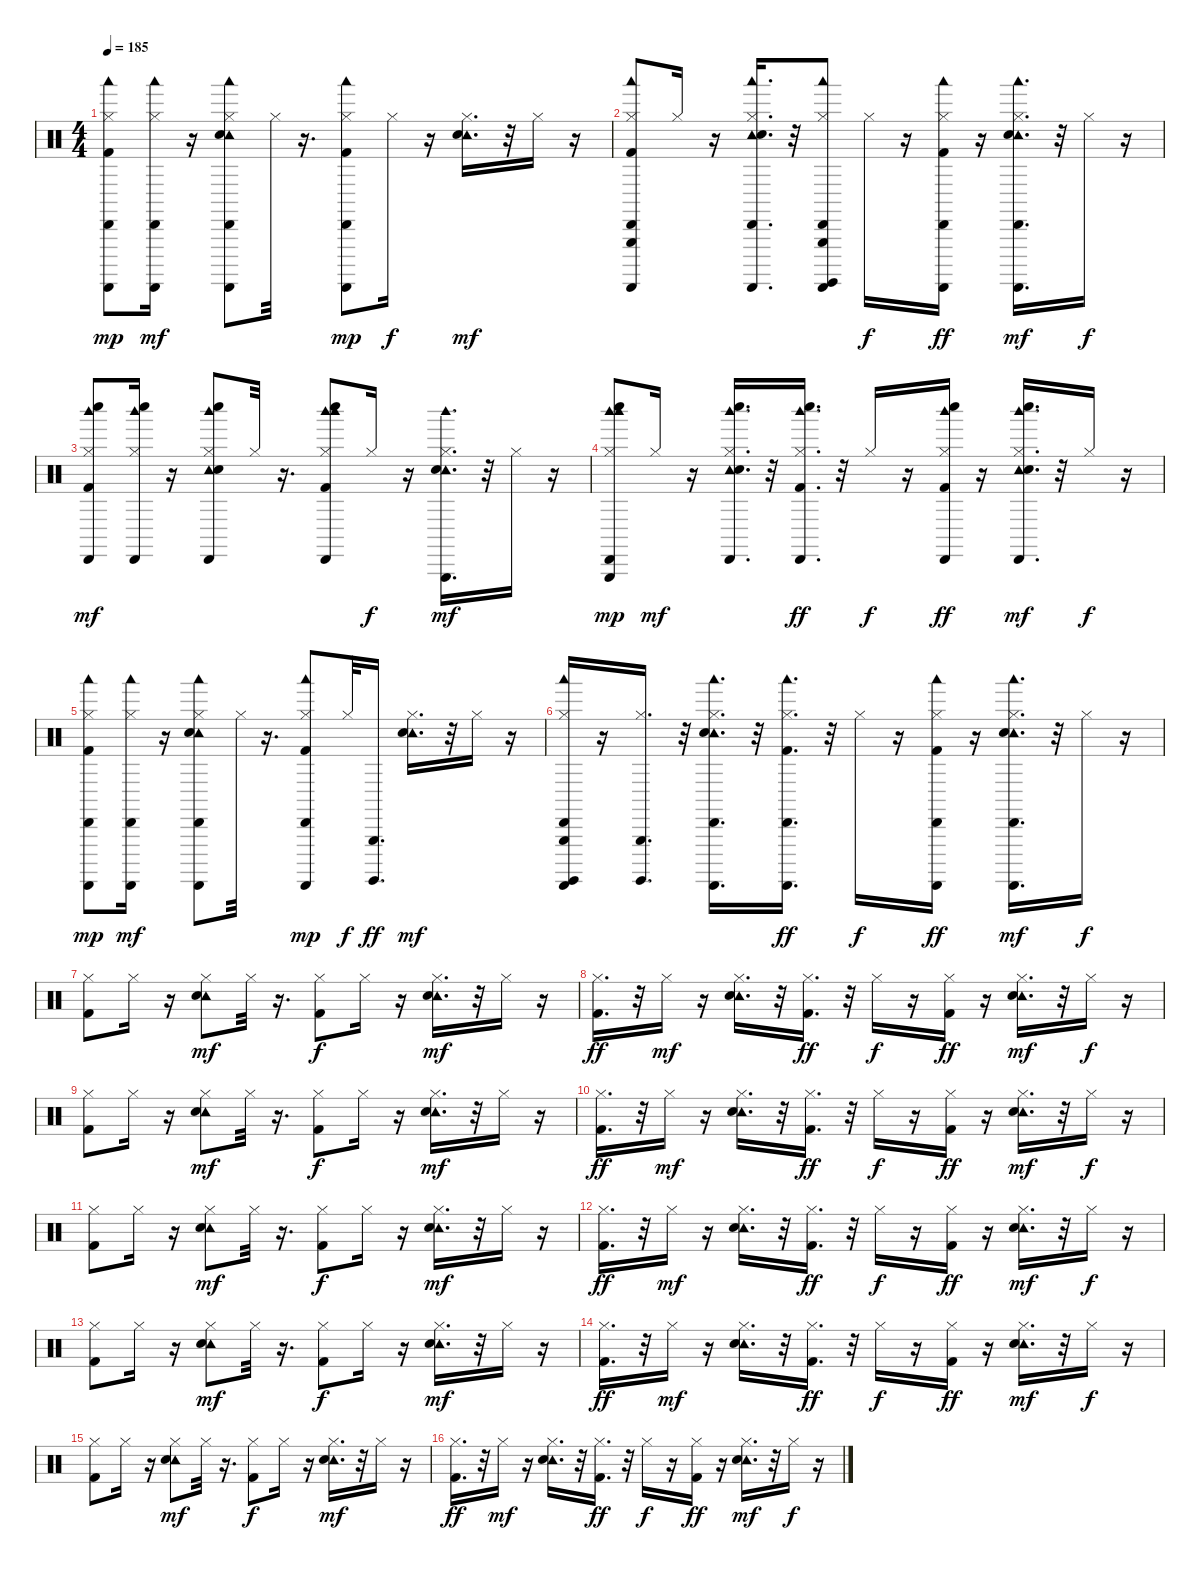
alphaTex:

\track "" {instrument percussion}
\staff {score}
\articulation defaults
\ts (4 4)
\tempo 185
\clef neutral
\ks c
("Woodblock low (hit)" "Cabasa (hit)" "Guiro (scrap-return)" "Hi-Hat (closed)" "Kick (hit) 2").8{dy mp} ("Woodblock low (hit)" "Cabasa (hit)" "Guiro (scrap-return)" "Hi-Hat (closed)").16{dy mf} r.16 ("Guiro (scrap-return)" "Woodblock low (hit)" "Cabasa (hit)" "Tambourine (hit)" "Hi-Hat (closed)" "Snare (hit) 2").8 "Hi-Hat (closed)".32 r.16{d} ("Woodblock low (hit)" "Guiro (scrap-return)" "Cabasa (hit)" "Hi-Hat (closed)" "Kick (hit) 2").8{dy mp} "Hi-Hat (closed)".16{dy f} r.16 ("Tambourine (hit)" "Hi-Hat (closed)" "Snare (hit) 2").16{d dy mf} r.32 "Hi-Hat (closed)".16 r.16 |
("Cabasa (hit)" "Woodblock low (hit)" "Guiro (scrap-return)" "Hi-Hat (closed)" "Kick (hit) 2" "Triangle (hit)").8 "Hi-Hat (closed)".16 r.16 ("Cabasa (hit)" "Woodblock low (hit)" "Guiro (scrap-return)" "Tambourine (hit)" "Hi-Hat (closed)" "Snare (hit) 2").16{d} r.32 ("Woodblock low (hit)" "Cabasa (hit)" "Guiro (scrap-return)" "Surdo (hit)" "Triangle (hit)" "Hi-Hat (closed)").8 "Hi-Hat (closed)".16{dy f} r.16 ("Cabasa (hit)" "Woodblock low (hit)" "Guiro (scrap-return)" "Hi-Hat (closed)" "Kick (hit) 2").16{dy ff} r.16 ("Woodblock low (hit)" "Cabasa (hit)" "Guiro (scrap-return)" "Tambourine (hit)" "Hi-Hat (closed)" "Snare (hit) 2").16{d dy mf} r.32 "Hi-Hat (closed)".16{dy f} r.16 |
("Cabasa (hit)" "Whistle low (hit)" "Woodblock high (hit)" "Hi-Hat (closed)" "Kick (hit) 2").8{dy mf} ("Cabasa (hit)" "Whistle low (hit)" "Woodblock high (hit)" "Hi-Hat (closed)").16 r.16 ("Whistle low (hit)" "Cabasa (hit)" "Woodblock high (hit)" "Tambourine (hit)" "Hi-Hat (closed)" "Snare (hit) 2").8 "Hi-Hat (closed)".32 r.16{d} ("Whistle low (hit)" "Woodblock high (hit)" "Cabasa (hit)" "Hi-Hat (closed)" "Kick (hit) 2" "Woodblock high (hit)").8 "Hi-Hat (closed)".16{dy f} r.16 ("Tambourine (hit)" "Hi-Hat (closed)" "Snare (hit) 2" "Triangle (hit)" "Woodblock high (hit)").16{d dy mf} r.32 "Hi-Hat (closed)".16 r.16 |
("Triangle (hit)" "Woodblock high (hit)" "Cabasa (hit)" "Whistle low (hit)" "Woodblock high (hit)" "Hi-Hat (closed)").8{dy mp} "Hi-Hat (closed)".16{dy mf} r.16 ("Whistle low (hit)" "Cabasa (hit)" "Woodblock high (hit)" "Tambourine (hit)" "Hi-Hat (closed)" "Snare (hit) 2").16{d} r.32 ("Whistle low (hit)" "Cabasa (hit)" "Woodblock high (hit)" "Hi-Hat (closed)" "Kick (hit) 2").16{d dy ff} r.32 "Hi-Hat (closed)".16{dy f} r.16 ("Woodblock high (hit)" "Cabasa (hit)" "Whistle low (hit)" "Hi-Hat (closed)" "Kick (hit) 2").16{dy ff} r.16 ("Whistle low (hit)" "Cabasa (hit)" "Woodblock high (hit)" "Tambourine (hit)" "Hi-Hat (closed)" "Snare (hit) 2").16{d dy mf} r.32 "Hi-Hat (closed)".16{dy f} r.16 |
("Woodblock low (hit)" "Cabasa (hit)" "Guiro (scrap-return)" "Hi-Hat (closed)" "Kick (hit) 2").8{dy mp} ("Cabasa (hit)" "Woodblock low (hit)" "Guiro (scrap-return)" "Hi-Hat (closed)").16{dy mf} r.16 ("Guiro (scrap-return)" "Cabasa (hit)" "Woodblock low (hit)" "Tambourine (hit)" "Hi-Hat (closed)" "Snare (hit) 2").8 "Hi-Hat (closed)".32 r.16{d} ("Woodblock low (hit)" "Guiro (scrap-return)" "Cabasa (hit)" "Hi-Hat (closed)" "Kick (hit) 2").8{dy mp} "Hi-Hat (closed)".32{dy f} ("Triangle (hit)" "Surdo (hit)").16{d dy ff} ("Tambourine (hit)" "Hi-Hat (closed)" "Snare (hit) 2").16{d dy mf} r.32 "Hi-Hat (closed)".16 r.16 |
("Cabasa (hit)" "Woodblock low (hit)" "Guiro (scrap-return)" "Surdo (hit)" "Triangle (hit)" "Hi-Hat (closed)").16 r.16 ("Hi-Hat (closed)" "Surdo (hit)" "Triangle (hit)").16{d} r.32 ("Cabasa (hit)" "Woodblock low (hit)" "Guiro (scrap-return)" "Tambourine (hit)" "Hi-Hat (closed)" "Snare (hit) 2").16{d} r.32 ("Cabasa (hit)" "Woodblock low (hit)" "Guiro (scrap-return)" "Hi-Hat (closed)" "Kick (hit) 2").16{d dy ff} r.32 "Hi-Hat (closed)".16{dy f} r.16 ("Woodblock low (hit)" "Cabasa (hit)" "Guiro (scrap-return)" "Hi-Hat (closed)" "Kick (hit) 2").16{dy ff} r.16 ("Woodblock low (hit)" "Guiro (scrap-return)" "Cabasa (hit)" "Tambourine (hit)" "Hi-Hat (closed)" "Snare (hit) 2").16{d dy mf} r.32 "Hi-Hat (closed)".16{dy f} r.16 |
("Hi-Hat (closed)" "Kick (hit) 2").8 "Hi-Hat (closed)".16 r.16 ("Tambourine (hit)" "Hi-Hat (closed)" "Snare (hit) 2").8{dy mf} "Hi-Hat (closed)".32 r.16{d} ("Hi-Hat (closed)" "Kick (hit) 2").8{dy f} "Hi-Hat (closed)".16 r.16 ("Tambourine (hit)" "Hi-Hat (closed)" "Snare (hit) 2").16{d dy mf} r.32 "Hi-Hat (closed)".16 r.16 |
("Hi-Hat (closed)" "Kick (hit) 2").16{d dy ff} r.32 "Hi-Hat (closed)".16{dy mf} r.16 ("Tambourine (hit)" "Hi-Hat (closed)" "Snare (hit) 2").16{d} r.32 ("Hi-Hat (closed)" "Kick (hit) 2").16{d dy ff} r.32 "Hi-Hat (closed)".16{dy f} r.16 ("Hi-Hat (closed)" "Kick (hit) 2").16{dy ff} r.16 ("Tambourine (hit)" "Hi-Hat (closed)" "Snare (hit) 2").16{d dy mf} r.32 "Hi-Hat (closed)".16{dy f} r.16 |
("Hi-Hat (closed)" "Kick (hit) 2").8 "Hi-Hat (closed)".16 r.16 ("Tambourine (hit)" "Hi-Hat (closed)" "Snare (hit) 2").8{dy mf} "Hi-Hat (closed)".32 r.16{d} ("Hi-Hat (closed)" "Kick (hit) 2").8{dy f} "Hi-Hat (closed)".16 r.16 ("Tambourine (hit)" "Hi-Hat (closed)" "Snare (hit) 2").16{d dy mf} r.32 "Hi-Hat (closed)".16 r.16 |
("Hi-Hat (closed)" "Kick (hit) 2").16{d dy ff} r.32 "Hi-Hat (closed)".16{dy mf} r.16 ("Tambourine (hit)" "Hi-Hat (closed)" "Snare (hit) 2").16{d} r.32 ("Hi-Hat (closed)" "Kick (hit) 2").16{d dy ff} r.32 "Hi-Hat (closed)".16{dy f} r.16 ("Hi-Hat (closed)" "Kick (hit) 2").16{dy ff} r.16 ("Tambourine (hit)" "Hi-Hat (closed)" "Snare (hit) 2").16{d dy mf} r.32 "Hi-Hat (closed)".16{dy f} r.16 |
("Hi-Hat (closed)" "Kick (hit) 2").8 "Hi-Hat (closed)".16 r.16 ("Tambourine (hit)" "Hi-Hat (closed)" "Snare (hit) 2").8{dy mf} "Hi-Hat (closed)".32 r.16{d} ("Hi-Hat (closed)" "Kick (hit) 2").8{dy f} "Hi-Hat (closed)".16 r.16 ("Tambourine (hit)" "Hi-Hat (closed)" "Snare (hit) 2").16{d dy mf} r.32 "Hi-Hat (closed)".16 r.16 |
("Hi-Hat (closed)" "Kick (hit) 2").16{d dy ff} r.32 "Hi-Hat (closed)".16{dy mf} r.16 ("Tambourine (hit)" "Hi-Hat (closed)" "Snare (hit) 2").16{d} r.32 ("Hi-Hat (closed)" "Kick (hit) 2").16{d dy ff} r.32 "Hi-Hat (closed)".16{dy f} r.16 ("Hi-Hat (closed)" "Kick (hit) 2").16{dy ff} r.16 ("Tambourine (hit)" "Hi-Hat (closed)" "Snare (hit) 2").16{d dy mf} r.32 "Hi-Hat (closed)".16{dy f} r.16 |
("Hi-Hat (closed)" "Kick (hit) 2").8 "Hi-Hat (closed)".16 r.16 ("Tambourine (hit)" "Hi-Hat (closed)" "Snare (hit) 2").8{dy mf} "Hi-Hat (closed)".32 r.16{d} ("Hi-Hat (closed)" "Kick (hit) 2").8{dy f} "Hi-Hat (closed)".16 r.16 ("Tambourine (hit)" "Hi-Hat (closed)" "Snare (hit) 2").16{d dy mf} r.32 "Hi-Hat (closed)".16 r.16 |
("Hi-Hat (closed)" "Kick (hit) 2").16{d dy ff} r.32 "Hi-Hat (closed)".16{dy mf} r.16 ("Tambourine (hit)" "Hi-Hat (closed)" "Snare (hit) 2").16{d} r.32 ("Hi-Hat (closed)" "Kick (hit) 2").16{d dy ff} r.32 "Hi-Hat (closed)".16{dy f} r.16 ("Hi-Hat (closed)" "Kick (hit) 2").16{dy ff} r.16 ("Tambourine (hit)" "Hi-Hat (closed)" "Snare (hit) 2").16{d dy mf} r.32 "Hi-Hat (closed)".16{dy f} r.16 |
("Hi-Hat (closed)" "Kick (hit) 2").8 "Hi-Hat (closed)".16 r.16 ("Tambourine (hit)" "Hi-Hat (closed)" "Snare (hit) 2").8{dy mf} "Hi-Hat (closed)".32 r.16{d} ("Hi-Hat (closed)" "Kick (hit) 2").8{dy f} "Hi-Hat (closed)".16 r.16 ("Tambourine (hit)" "Hi-Hat (closed)" "Snare (hit) 2").16{d dy mf} r.32 "Hi-Hat (closed)".16 r.16 |
("Hi-Hat (closed)" "Kick (hit) 2").16{d dy ff} r.32 "Hi-Hat (closed)".16{dy mf} r.16 ("Tambourine (hit)" "Hi-Hat (closed)" "Snare (hit) 2").16{d} r.32 ("Hi-Hat (closed)" "Kick (hit) 2").16{d dy ff} r.32 "Hi-Hat (closed)".16{dy f} r.16 ("Hi-Hat (closed)" "Kick (hit) 2").16{dy ff} r.16 ("Tambourine (hit)" "Hi-Hat (closed)" "Snare (hit) 2").16{d dy mf} r.32 "Hi-Hat (closed)".16{dy f} r.16
